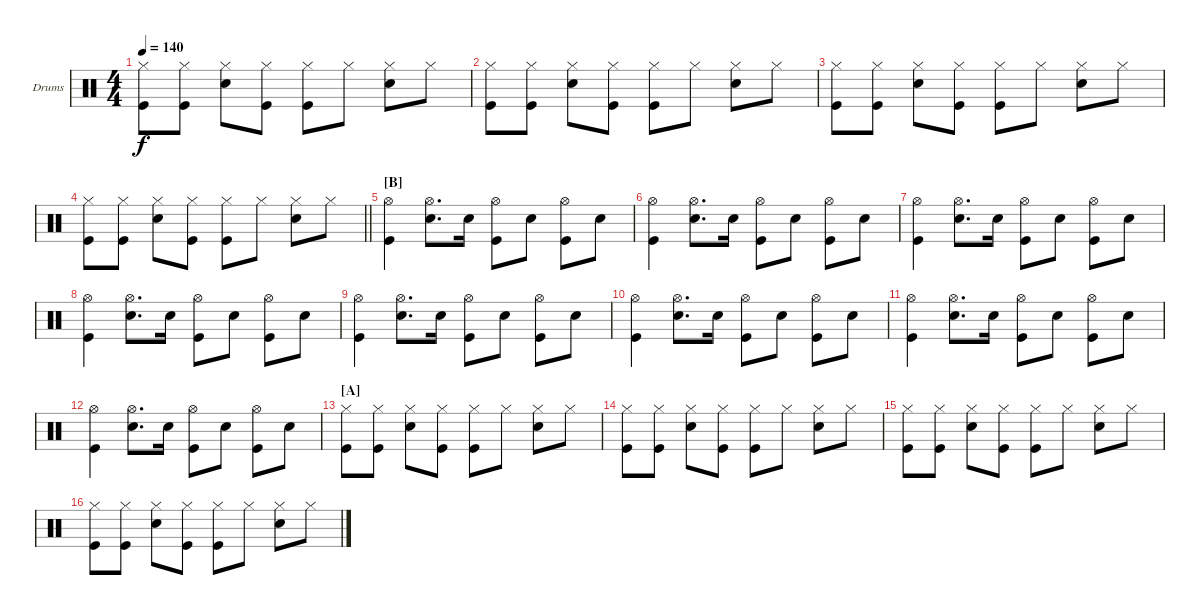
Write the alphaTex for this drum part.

\bracketExtendMode groupsimilarinstruments
\firstSystemTrackNameOrientation horizontal
\otherSystemsTrackNameOrientation horizontal
\track ("Fabrizio Moretti" "Drums") {instrument percussion}
\staff {score}
\articulation defaults
\ts (4 4)
\tempo 140
\clef neutral
\ks aminor
("Kick (hit)" "Hi-Hat (closed)").8{dy f} ("Kick (hit)" "Hi-Hat (closed)").8 ("Snare (hit) 2" "Hi-Hat (closed)").8 ("Kick (hit)" "Hi-Hat (closed)").8 ("Kick (hit)" "Hi-Hat (closed)").8 "Hi-Hat (closed)".8 ("Snare (hit) 2" "Hi-Hat (closed)").8 "Hi-Hat (closed)".8 |
("Kick (hit)" "Hi-Hat (closed)").8 ("Kick (hit)" "Hi-Hat (closed)").8 ("Snare (hit) 2" "Hi-Hat (closed)").8 ("Kick (hit)" "Hi-Hat (closed)").8 ("Kick (hit)" "Hi-Hat (closed)").8 "Hi-Hat (closed)".8 ("Snare (hit) 2" "Hi-Hat (closed)").8 "Hi-Hat (closed)".8 |
("Kick (hit)" "Hi-Hat (closed)").8 ("Kick (hit)" "Hi-Hat (closed)").8 ("Snare (hit) 2" "Hi-Hat (closed)").8 ("Kick (hit)" "Hi-Hat (closed)").8 ("Kick (hit)" "Hi-Hat (closed)").8 "Hi-Hat (closed)".8 ("Snare (hit) 2" "Hi-Hat (closed)").8 "Hi-Hat (closed)".8 |
\barLineRight lightlight
("Kick (hit)" "Hi-Hat (closed)").8 ("Kick (hit)" "Hi-Hat (closed)").8 ("Snare (hit) 2" "Hi-Hat (closed)").8 ("Kick (hit)" "Hi-Hat (closed)").8 ("Kick (hit)" "Hi-Hat (closed)").8 "Hi-Hat (closed)".8 ("Snare (hit) 2" "Hi-Hat (closed)").8 "Hi-Hat (closed)".8 |
\section ("B" "")
("Hi-Hat (open)" "Kick (hit)").4 ("Hi-Hat (open)" "Snare (hit) 2").8{d} "Snare (hit) 2".16 ("Hi-Hat (open)" "Kick (hit)").8 "Snare (hit) 2".8 ("Hi-Hat (open)" "Kick (hit)").8 "Snare (hit) 2".8 |
("Hi-Hat (open)" "Kick (hit)").4 ("Hi-Hat (open)" "Snare (hit) 2").8{d} "Snare (hit) 2".16 ("Hi-Hat (open)" "Kick (hit)").8 "Snare (hit) 2".8 ("Hi-Hat (open)" "Kick (hit)").8 "Snare (hit) 2".8 |
("Hi-Hat (open)" "Kick (hit)").4 ("Hi-Hat (open)" "Snare (hit) 2").8{d} "Snare (hit) 2".16 ("Hi-Hat (open)" "Kick (hit)").8 "Snare (hit) 2".8 ("Hi-Hat (open)" "Kick (hit)").8 "Snare (hit) 2".8 |
("Hi-Hat (open)" "Kick (hit)").4 ("Hi-Hat (open)" "Snare (hit) 2").8{d} "Snare (hit) 2".16 ("Hi-Hat (open)" "Kick (hit)").8 "Snare (hit) 2".8 ("Hi-Hat (open)" "Kick (hit)").8 "Snare (hit) 2".8 |
("Hi-Hat (open)" "Kick (hit)").4 ("Hi-Hat (open)" "Snare (hit) 2").8{d} "Snare (hit) 2".16 ("Hi-Hat (open)" "Kick (hit)").8 "Snare (hit) 2".8 ("Hi-Hat (open)" "Kick (hit)").8 "Snare (hit) 2".8 |
("Hi-Hat (open)" "Kick (hit)").4 ("Hi-Hat (open)" "Snare (hit) 2").8{d} "Snare (hit) 2".16 ("Hi-Hat (open)" "Kick (hit)").8 "Snare (hit) 2".8 ("Hi-Hat (open)" "Kick (hit)").8 "Snare (hit) 2".8 |
("Hi-Hat (open)" "Kick (hit)").4 ("Hi-Hat (open)" "Snare (hit) 2").8{d} "Snare (hit) 2".16 ("Hi-Hat (open)" "Kick (hit)").8 "Snare (hit) 2".8 ("Hi-Hat (open)" "Kick (hit)").8 "Snare (hit) 2".8 |
("Hi-Hat (open)" "Kick (hit)").4 ("Hi-Hat (open)" "Snare (hit) 2").8{d} "Snare (hit) 2".16 ("Hi-Hat (open)" "Kick (hit)").8 "Snare (hit) 2".8 ("Hi-Hat (open)" "Kick (hit)").8 "Snare (hit) 2".8 |
\section ("A" "")
("Kick (hit)" "Hi-Hat (closed)").8 ("Kick (hit)" "Hi-Hat (closed)").8 ("Snare (hit) 2" "Hi-Hat (closed)").8 ("Kick (hit)" "Hi-Hat (closed)").8 ("Kick (hit)" "Hi-Hat (closed)").8 "Hi-Hat (closed)".8 ("Snare (hit) 2" "Hi-Hat (closed)").8 "Hi-Hat (closed)".8 |
("Kick (hit)" "Hi-Hat (closed)").8 ("Kick (hit)" "Hi-Hat (closed)").8 ("Snare (hit) 2" "Hi-Hat (closed)").8 ("Kick (hit)" "Hi-Hat (closed)").8 ("Kick (hit)" "Hi-Hat (closed)").8 "Hi-Hat (closed)".8 ("Snare (hit) 2" "Hi-Hat (closed)").8 "Hi-Hat (closed)".8 |
("Kick (hit)" "Hi-Hat (closed)").8 ("Kick (hit)" "Hi-Hat (closed)").8 ("Snare (hit) 2" "Hi-Hat (closed)").8 ("Kick (hit)" "Hi-Hat (closed)").8 ("Kick (hit)" "Hi-Hat (closed)").8 "Hi-Hat (closed)".8 ("Snare (hit) 2" "Hi-Hat (closed)").8 "Hi-Hat (closed)".8 |
("Kick (hit)" "Hi-Hat (closed)").8 ("Kick (hit)" "Hi-Hat (closed)").8 ("Snare (hit) 2" "Hi-Hat (closed)").8 ("Kick (hit)" "Hi-Hat (closed)").8 ("Kick (hit)" "Hi-Hat (closed)").8 "Hi-Hat (closed)".8 ("Snare (hit) 2" "Hi-Hat (closed)").8 "Hi-Hat (closed)".8
